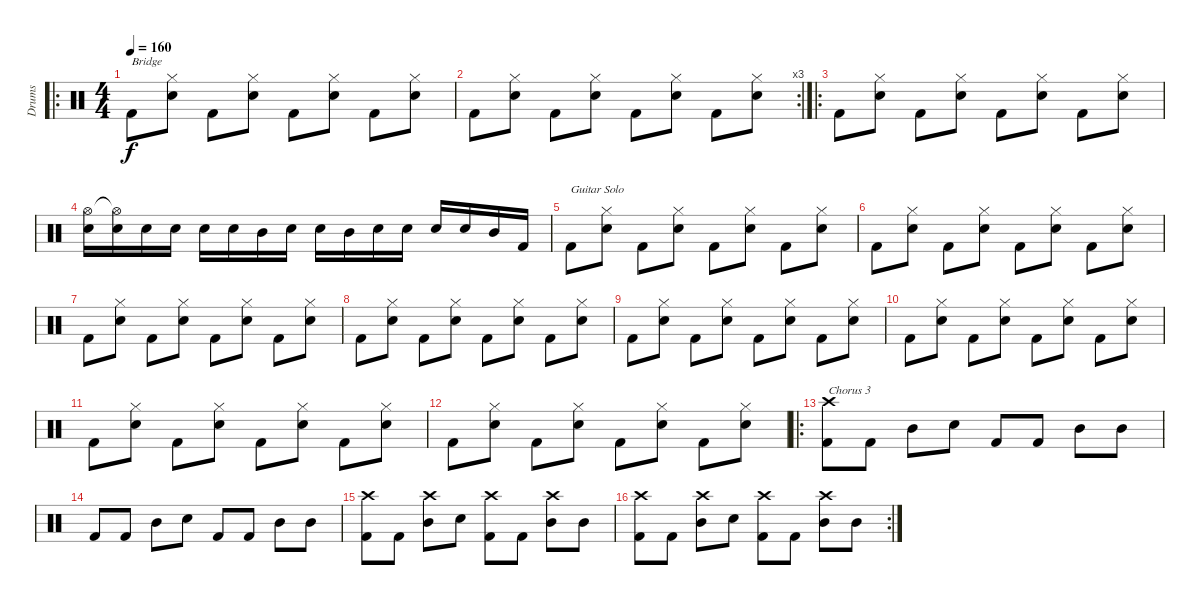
\track ("Drums" "Drums") {instrument percussion}
\staff {score}
\articulation defaults
\ro
\ts (4 4)
\tempo 160
\clef neutral
\ks c "Kick (hit) 2".8{txt "Bridge" dy f}
("Hi-Hat (closed)" "Snare (hit) 2").8 "Kick (hit) 2".8 ("Hi-Hat (closed)" "Snare (hit) 2").8 "Kick (hit) 2".8 ("Hi-Hat (closed)" "Snare (hit) 2").8 "Kick (hit) 2".8 ("Hi-Hat (closed)" "Snare (hit) 2").8 |
\rc 3 "Kick (hit) 2".8
("Hi-Hat (closed)" "Snare (hit) 2").8 "Kick (hit) 2".8 ("Hi-Hat (closed)" "Snare (hit) 2").8 "Kick (hit) 2".8 ("Hi-Hat (closed)" "Snare (hit) 2").8 "Kick (hit) 2".8 ("Hi-Hat (closed)" "Snare (hit) 2").8 |
\ro "Kick (hit) 2".8
("Hi-Hat (closed)" "Snare (hit) 2").8 "Kick (hit) 2".8 ("Hi-Hat (closed)" "Snare (hit) 2").8 "Kick (hit) 2".8 ("Hi-Hat (closed)" "Snare (hit) 2").8 "Kick (hit) 2".8 ("Hi-Hat (closed)" "Snare (hit) 2").8 |
("Hi-Hat (open)" "Snare (hit) 2").16 ("Hi-Hat (open)"{t} "Snare (hit) 2").16 "Snare (hit) 2".16 "Snare (hit) 2".16 "Snare (hit) 2".16 "Snare (hit) 2".16 "Mid Tom (hit)".16 "Snare (hit) 2".16 "Snare (hit) 2".16 "Mid Tom (hit)".16 "Snare (hit) 2".16 "Snare (hit) 2".16 "Snare (hit) 2".16 "Snare (hit) 2".16 "Mid Tom (hit)".16 "Kick (hit) 2".16 |
"Kick (hit) 2".8{txt "Guitar Solo"} ("Hi-Hat (closed)" "Snare (hit) 2").8 "Kick (hit) 2".8 ("Hi-Hat (closed)" "Snare (hit) 2").8 "Kick (hit) 2".8 ("Hi-Hat (closed)" "Snare (hit) 2").8 "Kick (hit) 2".8 ("Hi-Hat (closed)" "Snare (hit) 2").8 |
"Kick (hit) 2".8 ("Hi-Hat (closed)" "Snare (hit) 2").8 "Kick (hit) 2".8 ("Hi-Hat (closed)" "Snare (hit) 2").8 "Kick (hit) 2".8 ("Hi-Hat (closed)" "Snare (hit) 2").8 "Kick (hit) 2".8 ("Hi-Hat (closed)" "Snare (hit) 2").8 |
"Kick (hit) 2".8 ("Hi-Hat (closed)" "Snare (hit) 2").8 "Kick (hit) 2".8 ("Hi-Hat (closed)" "Snare (hit) 2").8 "Kick (hit) 2".8 ("Hi-Hat (closed)" "Snare (hit) 2").8 "Kick (hit) 2".8 ("Hi-Hat (closed)" "Snare (hit) 2").8 |
"Kick (hit) 2".8 ("Hi-Hat (closed)" "Snare (hit) 2").8 "Kick (hit) 2".8 ("Hi-Hat (closed)" "Snare (hit) 2").8 "Kick (hit) 2".8 ("Hi-Hat (closed)" "Snare (hit) 2").8 "Kick (hit) 2".8 ("Hi-Hat (closed)" "Snare (hit) 2").8 |
"Kick (hit) 2".8 ("Hi-Hat (closed)" "Snare (hit) 2").8 "Kick (hit) 2".8 ("Hi-Hat (closed)" "Snare (hit) 2").8 "Kick (hit) 2".8 ("Hi-Hat (closed)" "Snare (hit) 2").8 "Kick (hit) 2".8 ("Hi-Hat (closed)" "Snare (hit) 2").8 |
"Kick (hit) 2".8 ("Hi-Hat (closed)" "Snare (hit) 2").8 "Kick (hit) 2".8 ("Hi-Hat (closed)" "Snare (hit) 2").8 "Kick (hit) 2".8 ("Hi-Hat (closed)" "Snare (hit) 2").8 "Kick (hit) 2".8 ("Hi-Hat (closed)" "Snare (hit) 2").8 |
"Kick (hit) 2".8 ("Hi-Hat (closed)" "Snare (hit) 2").8 "Kick (hit) 2".8 ("Hi-Hat (closed)" "Snare (hit) 2").8 "Kick (hit) 2".8 ("Hi-Hat (closed)" "Snare (hit) 2").8 "Kick (hit) 2".8 ("Hi-Hat (closed)" "Snare (hit) 2").8 |
"Kick (hit) 2".8 ("Hi-Hat (closed)" "Snare (hit) 2").8 "Kick (hit) 2".8 ("Hi-Hat (closed)" "Snare (hit) 2").8 "Kick (hit) 2".8 ("Hi-Hat (closed)" "Snare (hit) 2").8 "Kick (hit) 2".8 ("Hi-Hat (closed)" "Snare (hit) 2").8 |
\ro
("Crash high (hit)" "Kick (hit) 2").8{txt "Chorus 3"} "Kick (hit) 2".8 "Mid Tom (hit)".8 "Snare (hit) 2".8 "Kick (hit) 2".8 "Kick (hit) 2".8 "Mid Tom (hit)".8 "Mid Tom (hit)".8 |
"Kick (hit) 2".8 "Kick (hit) 2".8 "Mid Tom (hit)".8 "Snare (hit) 2".8 "Kick (hit) 2".8 "Kick (hit) 2".8 "Mid Tom (hit)".8 "Mid Tom (hit)".8 |
("Crash high (hit)" "Kick (hit) 2").8 "Kick (hit) 2".8 ("Crash high (hit)" "Mid Tom (hit)").8 "Snare (hit) 2".8 ("Crash high (hit)" "Kick (hit) 2").8 "Kick (hit) 2".8 ("Crash high (hit)" "Mid Tom (hit)").8 "Mid Tom (hit)".8 |
\rc 2
("Crash high (hit)" "Kick (hit) 2").8 "Kick (hit) 2".8 ("Crash high (hit)" "Mid Tom (hit)").8 "Snare (hit) 2".8 ("Crash high (hit)" "Kick (hit) 2").8 "Kick (hit) 2".8 ("Crash high (hit)" "Mid Tom (hit)").8 "Mid Tom (hit)".8
